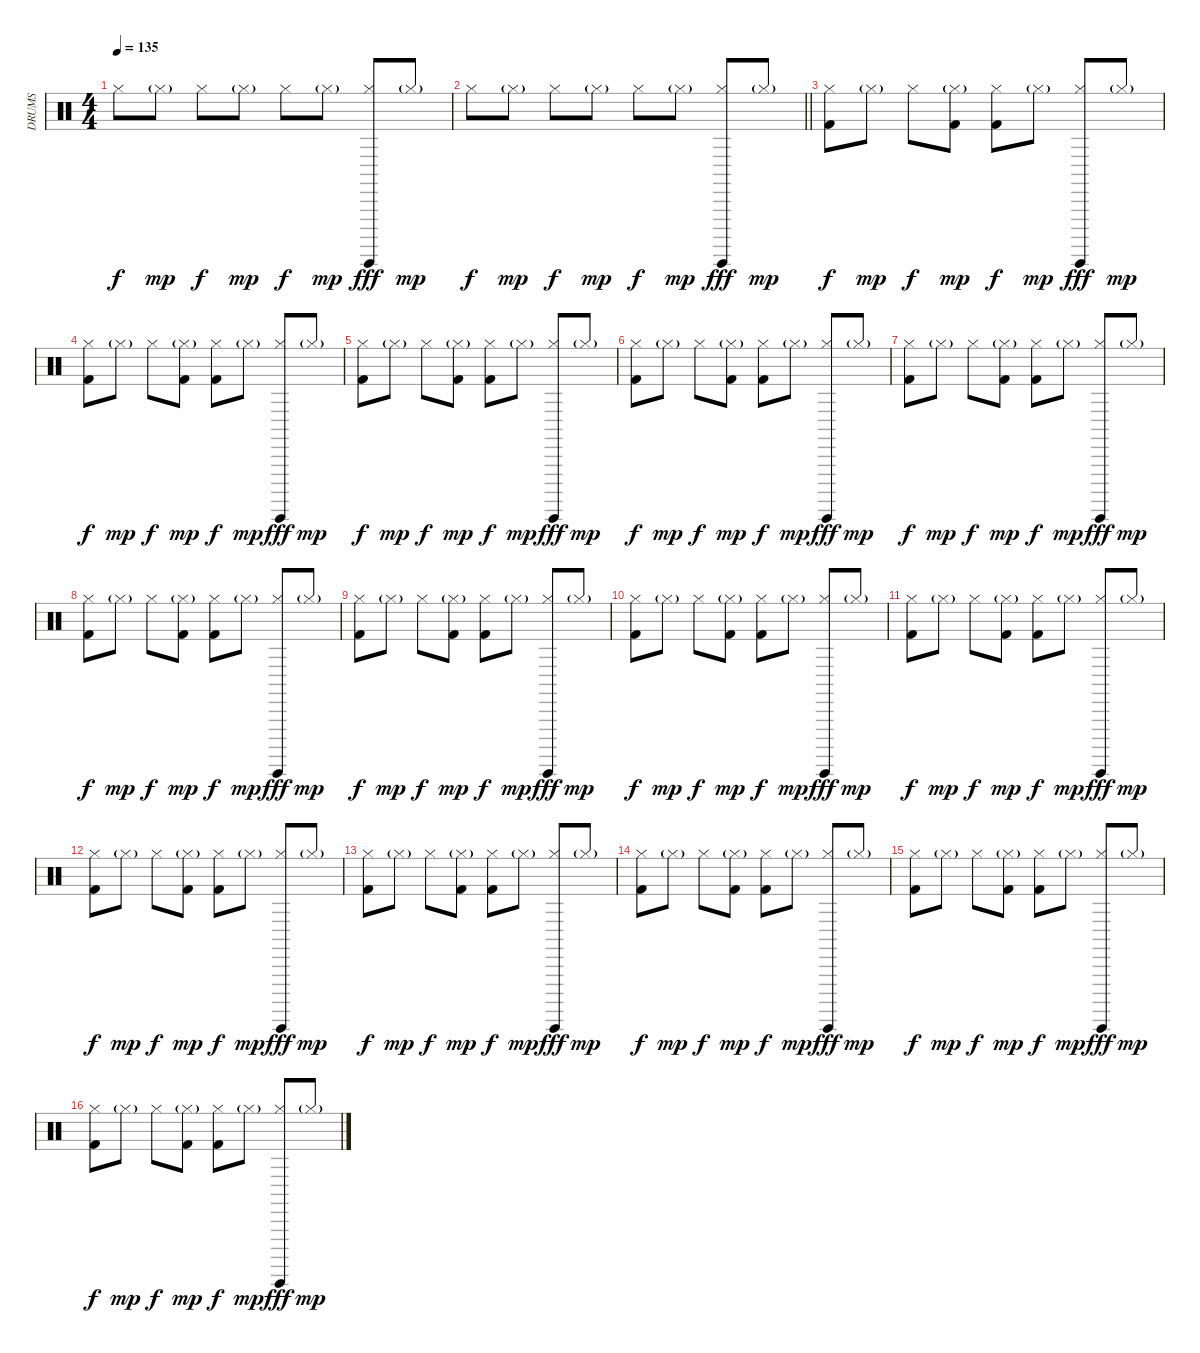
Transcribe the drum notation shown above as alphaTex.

\track ("DRUMS" "DRUMS") {instrument percussion}
\staff {score}
\articulation defaults
\ts (4 4)
\tempo 135
\clef neutral
\ks c "Hi-Hat (closed)".8{dy f} "Hi-Hat (closed)"{g}.8{dy mp} "Hi-Hat (closed)".8{dy f} "Hi-Hat (closed)"{g}.8{dy mp} "Hi-Hat (closed)".8{dy f} "Hi-Hat (closed)"{g}.8{dy mp}
("Hi-Hat (closed)" "Guiro (hit)").8{dy fff} "Hi-Hat (closed)"{g}.8{dy mp} |
\barLineRight lightlight "Hi-Hat (closed)".8{dy f} "Hi-Hat (closed)"{g}.8{dy mp} "Hi-Hat (closed)".8{dy f} "Hi-Hat (closed)"{g}.8{dy mp} "Hi-Hat (closed)".8{dy f} "Hi-Hat (closed)"{g}.8{dy mp}
("Hi-Hat (closed)" "Guiro (hit)").8{dy fff} "Hi-Hat (closed)"{g}.8{dy mp} |
("Hi-Hat (closed)" "Kick (hit) 2").8{dy f} "Hi-Hat (closed)"{g}.8{dy mp} "Hi-Hat (closed)".8{dy f} ("Hi-Hat (closed)"{g} "Kick (hit) 2").8{dy mp} ("Hi-Hat (closed)" "Kick (hit) 2").8{dy f} "Hi-Hat (closed)"{g}.8{dy mp} ("Hi-Hat (closed)" "Guiro (hit)").8{dy fff} "Hi-Hat (closed)"{g}.8{dy mp} |
("Hi-Hat (closed)" "Kick (hit) 2").8{dy f} "Hi-Hat (closed)"{g}.8{dy mp} "Hi-Hat (closed)".8{dy f} ("Hi-Hat (closed)"{g} "Kick (hit) 2").8{dy mp} ("Hi-Hat (closed)" "Kick (hit) 2").8{dy f} "Hi-Hat (closed)"{g}.8{dy mp} ("Hi-Hat (closed)" "Guiro (hit)").8{dy fff} "Hi-Hat (closed)"{g}.8{dy mp} |
("Hi-Hat (closed)" "Kick (hit) 2").8{dy f} "Hi-Hat (closed)"{g}.8{dy mp} "Hi-Hat (closed)".8{dy f} ("Hi-Hat (closed)"{g} "Kick (hit) 2").8{dy mp} ("Hi-Hat (closed)" "Kick (hit) 2").8{dy f} "Hi-Hat (closed)"{g}.8{dy mp} ("Hi-Hat (closed)" "Guiro (hit)").8{dy fff} "Hi-Hat (closed)"{g}.8{dy mp} |
("Hi-Hat (closed)" "Kick (hit) 2").8{dy f} "Hi-Hat (closed)"{g}.8{dy mp} "Hi-Hat (closed)".8{dy f} ("Hi-Hat (closed)"{g} "Kick (hit) 2").8{dy mp} ("Hi-Hat (closed)" "Kick (hit) 2").8{dy f} "Hi-Hat (closed)"{g}.8{dy mp} ("Hi-Hat (closed)" "Guiro (hit)").8{dy fff} "Hi-Hat (closed)"{g}.8{dy mp} |
("Hi-Hat (closed)" "Kick (hit) 2").8{dy f} "Hi-Hat (closed)"{g}.8{dy mp} "Hi-Hat (closed)".8{dy f} ("Hi-Hat (closed)"{g} "Kick (hit) 2").8{dy mp} ("Hi-Hat (closed)" "Kick (hit) 2").8{dy f} "Hi-Hat (closed)"{g}.8{dy mp} ("Hi-Hat (closed)" "Guiro (hit)").8{dy fff} "Hi-Hat (closed)"{g}.8{dy mp} |
("Hi-Hat (closed)" "Kick (hit) 2").8{dy f} "Hi-Hat (closed)"{g}.8{dy mp} "Hi-Hat (closed)".8{dy f} ("Hi-Hat (closed)"{g} "Kick (hit) 2").8{dy mp} ("Hi-Hat (closed)" "Kick (hit) 2").8{dy f} "Hi-Hat (closed)"{g}.8{dy mp} ("Hi-Hat (closed)" "Guiro (hit)").8{dy fff} "Hi-Hat (closed)"{g}.8{dy mp} |
("Hi-Hat (closed)" "Kick (hit) 2").8{dy f} "Hi-Hat (closed)"{g}.8{dy mp} "Hi-Hat (closed)".8{dy f} ("Hi-Hat (closed)"{g} "Kick (hit) 2").8{dy mp} ("Hi-Hat (closed)" "Kick (hit) 2").8{dy f} "Hi-Hat (closed)"{g}.8{dy mp} ("Hi-Hat (closed)" "Guiro (hit)").8{dy fff} "Hi-Hat (closed)"{g}.8{dy mp} |
("Hi-Hat (closed)" "Kick (hit) 2").8{dy f} "Hi-Hat (closed)"{g}.8{dy mp} "Hi-Hat (closed)".8{dy f} ("Hi-Hat (closed)"{g} "Kick (hit) 2").8{dy mp} ("Hi-Hat (closed)" "Kick (hit) 2").8{dy f} "Hi-Hat (closed)"{g}.8{dy mp} ("Hi-Hat (closed)" "Guiro (hit)").8{dy fff} "Hi-Hat (closed)"{g}.8{dy mp} |
("Hi-Hat (closed)" "Kick (hit) 2").8{dy f} "Hi-Hat (closed)"{g}.8{dy mp} "Hi-Hat (closed)".8{dy f} ("Hi-Hat (closed)"{g} "Kick (hit) 2").8{dy mp} ("Hi-Hat (closed)" "Kick (hit) 2").8{dy f} "Hi-Hat (closed)"{g}.8{dy mp} ("Hi-Hat (closed)" "Guiro (hit)").8{dy fff} "Hi-Hat (closed)"{g}.8{dy mp} |
("Hi-Hat (closed)" "Kick (hit) 2").8{dy f} "Hi-Hat (closed)"{g}.8{dy mp} "Hi-Hat (closed)".8{dy f} ("Hi-Hat (closed)"{g} "Kick (hit) 2").8{dy mp} ("Hi-Hat (closed)" "Kick (hit) 2").8{dy f} "Hi-Hat (closed)"{g}.8{dy mp} ("Hi-Hat (closed)" "Guiro (hit)").8{dy fff} "Hi-Hat (closed)"{g}.8{dy mp} |
("Hi-Hat (closed)" "Kick (hit) 2").8{dy f} "Hi-Hat (closed)"{g}.8{dy mp} "Hi-Hat (closed)".8{dy f} ("Hi-Hat (closed)"{g} "Kick (hit) 2").8{dy mp} ("Hi-Hat (closed)" "Kick (hit) 2").8{dy f} "Hi-Hat (closed)"{g}.8{dy mp} ("Hi-Hat (closed)" "Guiro (hit)").8{dy fff} "Hi-Hat (closed)"{g}.8{dy mp} |
("Hi-Hat (closed)" "Kick (hit) 2").8{dy f} "Hi-Hat (closed)"{g}.8{dy mp} "Hi-Hat (closed)".8{dy f} ("Hi-Hat (closed)"{g} "Kick (hit) 2").8{dy mp} ("Hi-Hat (closed)" "Kick (hit) 2").8{dy f} "Hi-Hat (closed)"{g}.8{dy mp} ("Hi-Hat (closed)" "Guiro (hit)").8{dy fff} "Hi-Hat (closed)"{g}.8{dy mp} |
("Hi-Hat (closed)" "Kick (hit) 2").8{dy f} "Hi-Hat (closed)"{g}.8{dy mp} "Hi-Hat (closed)".8{dy f} ("Hi-Hat (closed)"{g} "Kick (hit) 2").8{dy mp} ("Hi-Hat (closed)" "Kick (hit) 2").8{dy f} "Hi-Hat (closed)"{g}.8{dy mp} ("Hi-Hat (closed)" "Guiro (hit)").8{dy fff} "Hi-Hat (closed)"{g}.8{dy mp} |
("Hi-Hat (closed)" "Kick (hit) 2").8{dy f} "Hi-Hat (closed)"{g}.8{dy mp} "Hi-Hat (closed)".8{dy f} ("Hi-Hat (closed)"{g} "Kick (hit) 2").8{dy mp} ("Hi-Hat (closed)" "Kick (hit) 2").8{dy f} "Hi-Hat (closed)"{g}.8{dy mp} ("Hi-Hat (closed)" "Guiro (hit)").8{dy fff} "Hi-Hat (closed)"{g}.8{dy mp}
